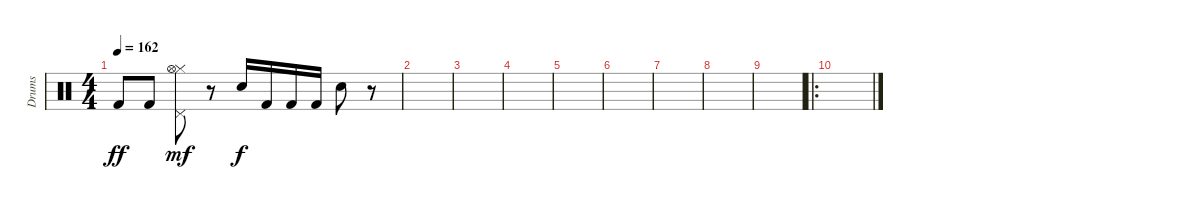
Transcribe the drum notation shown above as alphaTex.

\track ("Drums" "Drums") {instrument percussion}
\staff {score}
\articulation defaults
\ts (4 4)
\tempo 162
\clef neutral
\ks c "Kick (hit) 2".8{dy ff} "Kick (hit) 2".8
("Pedal Hi-Hat (hit)" "Hi-Hat (closed)" "Hi-Hat (open)").8{dy mf} r.8 "Electric Snare (hit)".16{dy f} "Kick (hit) 2".16 "Kick (hit) 2".16 "Kick (hit) 2".16 "Snare (hit) 2".8 r.8 |
|
|
|
|
|
|
|
|
\ro
